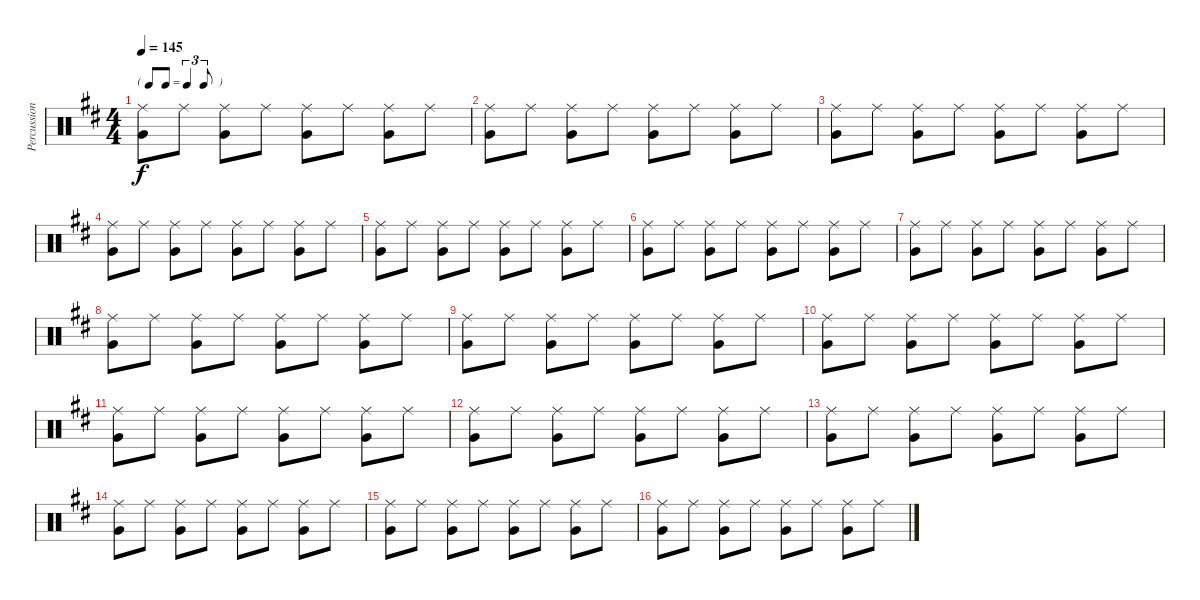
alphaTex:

\track ("Percussion" "Percussion") {instrument percussion}
\staff {score}
\articulation defaults
\ts (4 4)
\tf triplet8th
\tempo 145
\clef neutral
\ks d
("Very Low Tom (hit)" "Ride (middle)").8{dy f} "Ride (middle)".8 ("Very Low Tom (hit)" "Ride (middle)").8 "Ride (middle)".8 ("Very Low Tom (hit)" "Ride (middle)").8 "Ride (middle)".8 ("Very Low Tom (hit)" "Ride (middle)").8 "Ride (middle)".8 |
("Very Low Tom (hit)" "Ride (middle)").8 "Ride (middle)".8 ("Very Low Tom (hit)" "Ride (middle)").8 "Ride (middle)".8 ("Very Low Tom (hit)" "Ride (middle)").8 "Ride (middle)".8 ("Very Low Tom (hit)" "Ride (middle)").8 "Ride (middle)".8 |
("Very Low Tom (hit)" "Ride (middle)").8 "Ride (middle)".8 ("Very Low Tom (hit)" "Ride (middle)").8 "Ride (middle)".8 ("Very Low Tom (hit)" "Ride (middle)").8 "Ride (middle)".8 ("Very Low Tom (hit)" "Ride (middle)").8 "Ride (middle)".8 |
("Very Low Tom (hit)" "Ride (middle)").8 "Ride (middle)".8 ("Very Low Tom (hit)" "Ride (middle)").8 "Ride (middle)".8 ("Very Low Tom (hit)" "Ride (middle)").8 "Ride (middle)".8 ("Very Low Tom (hit)" "Ride (middle)").8 "Ride (middle)".8 |
("Very Low Tom (hit)" "Ride (middle)").8 "Ride (middle)".8 ("Very Low Tom (hit)" "Ride (middle)").8 "Ride (middle)".8 ("Very Low Tom (hit)" "Ride (middle)").8 "Ride (middle)".8 ("Very Low Tom (hit)" "Ride (middle)").8 "Ride (middle)".8 |
("Very Low Tom (hit)" "Ride (middle)").8 "Ride (middle)".8 ("Very Low Tom (hit)" "Ride (middle)").8 "Ride (middle)".8 ("Very Low Tom (hit)" "Ride (middle)").8 "Ride (middle)".8 ("Very Low Tom (hit)" "Ride (middle)").8 "Ride (middle)".8 |
("Very Low Tom (hit)" "Ride (middle)").8 "Ride (middle)".8 ("Very Low Tom (hit)" "Ride (middle)").8 "Ride (middle)".8 ("Very Low Tom (hit)" "Ride (middle)").8 "Ride (middle)".8 ("Very Low Tom (hit)" "Ride (middle)").8 "Ride (middle)".8 |
("Very Low Tom (hit)" "Ride (middle)").8 "Ride (middle)".8 ("Very Low Tom (hit)" "Ride (middle)").8 "Ride (middle)".8 ("Very Low Tom (hit)" "Ride (middle)").8 "Ride (middle)".8 ("Very Low Tom (hit)" "Ride (middle)").8 "Ride (middle)".8 |
("Very Low Tom (hit)" "Ride (middle)").8 "Ride (middle)".8 ("Very Low Tom (hit)" "Ride (middle)").8 "Ride (middle)".8 ("Very Low Tom (hit)" "Ride (middle)").8 "Ride (middle)".8 ("Very Low Tom (hit)" "Ride (middle)").8 "Ride (middle)".8 |
("Very Low Tom (hit)" "Ride (middle)").8 "Ride (middle)".8 ("Very Low Tom (hit)" "Ride (middle)").8 "Ride (middle)".8 ("Very Low Tom (hit)" "Ride (middle)").8 "Ride (middle)".8 ("Very Low Tom (hit)" "Ride (middle)").8 "Ride (middle)".8 |
("Very Low Tom (hit)" "Ride (middle)").8 "Ride (middle)".8 ("Very Low Tom (hit)" "Ride (middle)").8 "Ride (middle)".8 ("Very Low Tom (hit)" "Ride (middle)").8 "Ride (middle)".8 ("Very Low Tom (hit)" "Ride (middle)").8 "Ride (middle)".8 |
("Very Low Tom (hit)" "Ride (middle)").8 "Ride (middle)".8 ("Very Low Tom (hit)" "Ride (middle)").8 "Ride (middle)".8 ("Very Low Tom (hit)" "Ride (middle)").8 "Ride (middle)".8 ("Very Low Tom (hit)" "Ride (middle)").8 "Ride (middle)".8 |
("Very Low Tom (hit)" "Ride (middle)").8 "Ride (middle)".8 ("Very Low Tom (hit)" "Ride (middle)").8 "Ride (middle)".8 ("Very Low Tom (hit)" "Ride (middle)").8 "Ride (middle)".8 ("Very Low Tom (hit)" "Ride (middle)").8 "Ride (middle)".8 |
("Very Low Tom (hit)" "Ride (middle)").8 "Ride (middle)".8 ("Very Low Tom (hit)" "Ride (middle)").8 "Ride (middle)".8 ("Very Low Tom (hit)" "Ride (middle)").8 "Ride (middle)".8 ("Very Low Tom (hit)" "Ride (middle)").8 "Ride (middle)".8 |
("Very Low Tom (hit)" "Ride (middle)").8 "Ride (middle)".8 ("Very Low Tom (hit)" "Ride (middle)").8 "Ride (middle)".8 ("Very Low Tom (hit)" "Ride (middle)").8 "Ride (middle)".8 ("Very Low Tom (hit)" "Ride (middle)").8 "Ride (middle)".8 |
("Very Low Tom (hit)" "Ride (middle)").8 "Ride (middle)".8 ("Very Low Tom (hit)" "Ride (middle)").8 "Ride (middle)".8 ("Very Low Tom (hit)" "Ride (middle)").8 "Ride (middle)".8 ("Very Low Tom (hit)" "Ride (middle)").8 "Ride (middle)".8
